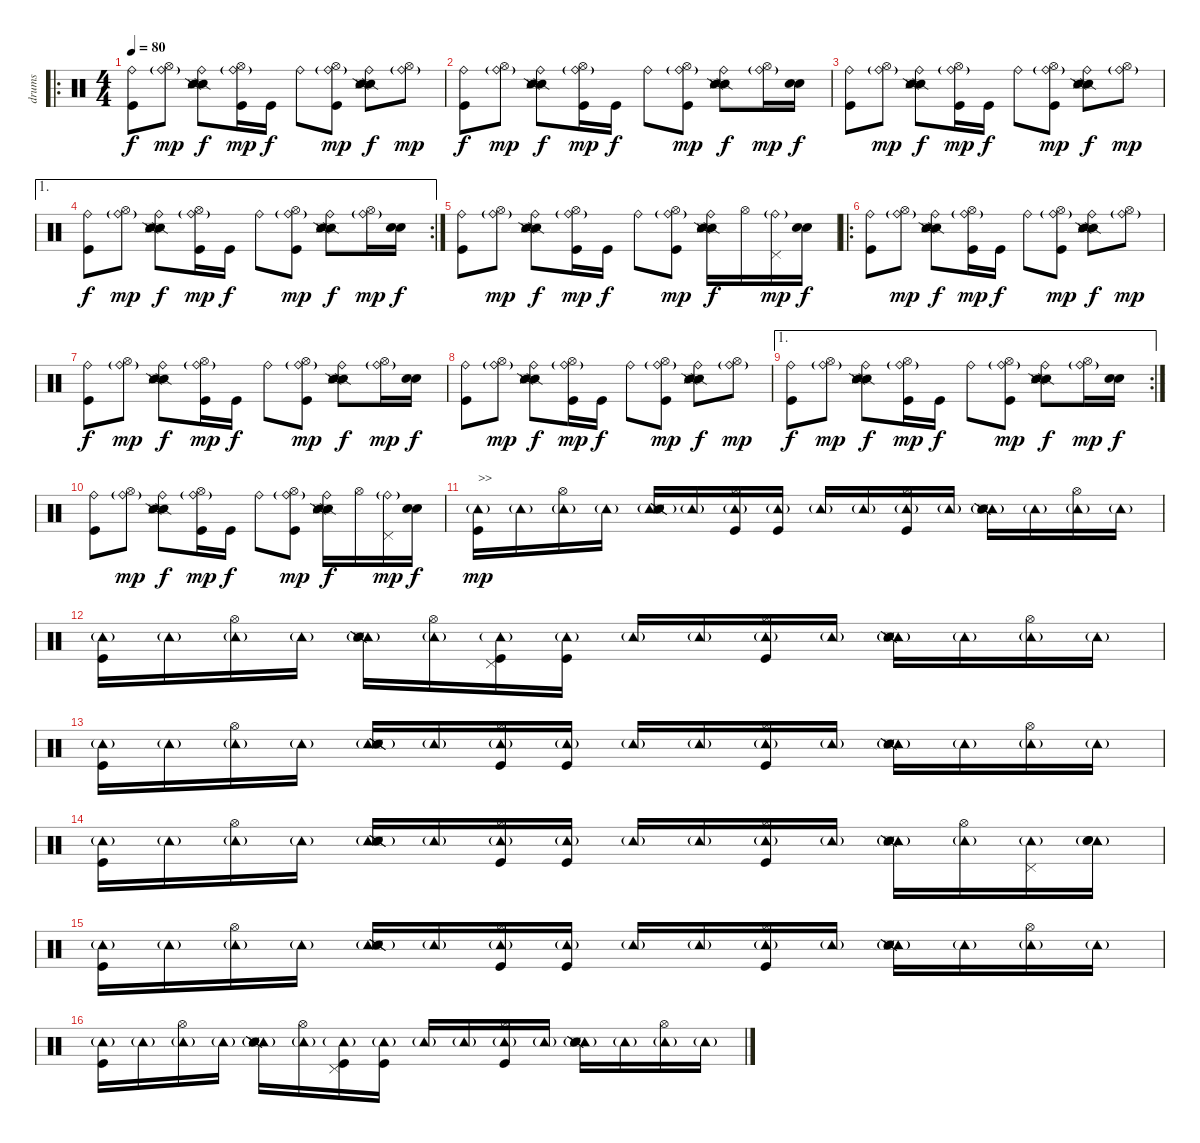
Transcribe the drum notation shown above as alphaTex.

\track ("drums" "drums") {instrument percussion}
\staff {score}
\articulation defaults
\ro
\ts (4 4)
\tempo 80
\clef neutral
\ks c
("Ride (bell)" "Kick (hit)").8{dy f} ("Ride (bell)"{g} "Hi-Hat (open)").8{dy mp} ("Ride (bell)" "Snare (side stick) 2" "Snare (side stick) 2" "Metronome (hit)" "Metronome (hit)").8{dy f} ("Ride (bell)"{g} "Hi-Hat (open)" "Kick (hit)").16{dy mp} "Kick (hit)".16{dy f} "Ride (bell)".8 ("Ride (bell)"{g} "Hi-Hat (open)" "Kick (hit)").8{dy mp} ("Ride (bell)" "Snare (side stick) 2" "Snare (side stick) 2" "Metronome (hit)" "Metronome (hit)").8{dy f} ("Ride (bell)"{g} "Hi-Hat (open)").8{dy mp} |
("Ride (bell)" "Kick (hit)").8{dy f} ("Ride (bell)"{g} "Hi-Hat (open)").8{dy mp} ("Ride (bell)" "Snare (side stick) 2" "Snare (side stick) 2" "Metronome (hit)" "Metronome (hit)").8{dy f} ("Ride (bell)"{g} "Hi-Hat (open)" "Kick (hit)").16{dy mp} "Kick (hit)".16{dy f} "Ride (bell)".8 ("Ride (bell)"{g} "Hi-Hat (open)" "Kick (hit)").8{dy mp} ("Ride (bell)" "Snare (side stick) 2" "Snare (side stick) 2" "Metronome (hit)" "Metronome (hit)").8{dy f} ("Ride (bell)"{g} "Hi-Hat (open)").16{dy mp} ("Snare (hit) 2" "Snare (hit) 2").16{dy f} |
("Ride (bell)" "Kick (hit)").8 ("Ride (bell)"{g} "Hi-Hat (open)").8{dy mp} ("Ride (bell)" "Snare (side stick) 2" "Snare (side stick) 2" "Metronome (hit)" "Metronome (hit)").8{dy f} ("Ride (bell)"{g} "Hi-Hat (open)" "Kick (hit)").16{dy mp} "Kick (hit)".16{dy f} "Ride (bell)".8 ("Ride (bell)"{g} "Hi-Hat (open)" "Kick (hit)").8{dy mp} ("Ride (bell)" "Snare (side stick) 2" "Snare (side stick) 2" "Metronome (hit)" "Metronome (hit)").8{dy f} ("Ride (bell)"{g} "Hi-Hat (open)").8{dy mp} |
\ae 1
\rc 2
("Ride (bell)" "Kick (hit)").8{dy f} ("Ride (bell)"{g} "Hi-Hat (open)").8{dy mp} ("Ride (bell)" "Snare (side stick) 2" "Snare (side stick) 2" "Metronome (hit)" "Metronome (hit)").8{dy f} ("Ride (bell)"{g} "Hi-Hat (open)" "Kick (hit)").16{dy mp} "Kick (hit)".16{dy f} "Ride (bell)".8 ("Ride (bell)"{g} "Hi-Hat (open)" "Kick (hit)").8{dy mp} ("Ride (bell)" "Snare (side stick) 2" "Snare (side stick) 2" "Metronome (hit)" "Metronome (hit)").8{dy f} ("Ride (bell)"{g} "Hi-Hat (open)").16{dy mp} ("Snare (hit) 2" "Snare (hit) 2").16{dy f} |
("Ride (bell)" "Kick (hit)").8 ("Ride (bell)"{g} "Hi-Hat (open)").8{dy mp} ("Ride (bell)" "Snare (side stick) 2" "Snare (side stick) 2" "Metronome (hit)" "Metronome (hit)").8{dy f} ("Ride (bell)"{g} "Hi-Hat (open)" "Kick (hit)").16{dy mp} "Kick (hit)".16{dy f} "Ride (bell)".8 ("Ride (bell)"{g} "Hi-Hat (open)" "Kick (hit)").8{dy mp} ("Ride (bell)" "Snare (side stick) 2" "Snare (side stick) 2" "Metronome (hit)" "Metronome (hit)").16{dy f} "Hi-Hat (open)".16 ("Ride (bell)"{g} "Pedal Hi-Hat (hit)").16{dy mp} ("Snare (hit) 2" "Snare (hit) 2").16{dy f} |
\ro
("Ride (bell)" "Kick (hit)").8 ("Ride (bell)"{g} "Hi-Hat (open)").8{dy mp} ("Ride (bell)" "Snare (side stick) 2" "Snare (side stick) 2" "Metronome (hit)" "Metronome (hit)").8{dy f} ("Ride (bell)"{g} "Hi-Hat (open)" "Kick (hit)").16{dy mp} "Kick (hit)".16{dy f} "Ride (bell)".8 ("Ride (bell)"{g} "Hi-Hat (open)" "Kick (hit)").8{dy mp} ("Ride (bell)" "Snare (side stick) 2" "Snare (side stick) 2" "Metronome (hit)" "Metronome (hit)").8{dy f} ("Ride (bell)"{g} "Hi-Hat (open)").8{dy mp} |
("Ride (bell)" "Kick (hit)").8{dy f} ("Ride (bell)"{g} "Hi-Hat (open)").8{dy mp} ("Ride (bell)" "Snare (side stick) 2" "Snare (side stick) 2" "Metronome (hit)" "Metronome (hit)").8{dy f} ("Ride (bell)"{g} "Hi-Hat (open)" "Kick (hit)").16{dy mp} "Kick (hit)".16{dy f} "Ride (bell)".8 ("Ride (bell)"{g} "Hi-Hat (open)" "Kick (hit)").8{dy mp} ("Ride (bell)" "Snare (side stick) 2" "Snare (side stick) 2" "Metronome (hit)" "Metronome (hit)").8{dy f} ("Ride (bell)"{g} "Hi-Hat (open)").16{dy mp} ("Snare (hit) 2" "Snare (hit) 2").16{dy f} |
("Ride (bell)" "Kick (hit)").8 ("Ride (bell)"{g} "Hi-Hat (open)").8{dy mp} ("Ride (bell)" "Snare (side stick) 2" "Snare (side stick) 2" "Metronome (hit)" "Metronome (hit)").8{dy f} ("Ride (bell)"{g} "Hi-Hat (open)" "Kick (hit)").16{dy mp} "Kick (hit)".16{dy f} "Ride (bell)".8 ("Ride (bell)"{g} "Hi-Hat (open)" "Kick (hit)").8{dy mp} ("Ride (bell)" "Snare (side stick) 2" "Snare (side stick) 2" "Metronome (hit)" "Metronome (hit)").8{dy f} ("Ride (bell)"{g} "Hi-Hat (open)").8{dy mp} |
\ae 1
\rc 2
("Ride (bell)" "Kick (hit)").8{dy f} ("Ride (bell)"{g} "Hi-Hat (open)").8{dy mp} ("Ride (bell)" "Snare (side stick) 2" "Snare (side stick) 2" "Metronome (hit)" "Metronome (hit)").8{dy f} ("Ride (bell)"{g} "Hi-Hat (open)" "Kick (hit)").16{dy mp} "Kick (hit)".16{dy f} "Ride (bell)".8 ("Ride (bell)"{g} "Hi-Hat (open)" "Kick (hit)").8{dy mp} ("Ride (bell)" "Snare (side stick) 2" "Snare (side stick) 2" "Metronome (hit)" "Metronome (hit)").8{dy f} ("Ride (bell)"{g} "Hi-Hat (open)").16{dy mp} ("Snare (hit) 2" "Snare (hit) 2").16{dy f} |
("Ride (bell)" "Kick (hit)").8 ("Ride (bell)"{g} "Hi-Hat (open)").8{dy mp} ("Ride (bell)" "Snare (side stick) 2" "Snare (side stick) 2" "Metronome (hit)" "Metronome (hit)").8{dy f} ("Ride (bell)"{g} "Hi-Hat (open)" "Kick (hit)").16{dy mp} "Kick (hit)".16{dy f} "Ride (bell)".8 ("Ride (bell)"{g} "Hi-Hat (open)" "Kick (hit)").8{dy mp} ("Ride (bell)" "Snare (side stick) 2" "Snare (side stick) 2" "Metronome (hit)" "Metronome (hit)").16{dy f} "Hi-Hat (open)".16 ("Ride (bell)"{g} "Pedal Hi-Hat (hit)").16{dy mp} ("Snare (hit) 2" "Snare (hit) 2").16{dy f} |
("Tambourine (hit)"{g} "Kick (hit)").16{txt ">>" dy mp} "Tambourine (hit)"{g}.16 ("Tambourine (hit)"{g} "Hi-Hat (open)").16 "Tambourine (hit)"{g}.16 ("Tambourine (hit)"{g} "Snare (side stick) 2" "Snare (side stick) 2" "Metronome (hit)" "Metronome (hit)").16 "Tambourine (hit)"{g}.16 ("Tambourine (hit)"{g} "Hi-Hat (open)" "Kick (hit)").16 ("Tambourine (hit)"{g} "Kick (hit)").16 "Tambourine (hit)"{g}.16 "Tambourine (hit)"{g}.16 ("Tambourine (hit)"{g} "Hi-Hat (open)" "Kick (hit)").16 "Tambourine (hit)"{g}.16 ("Tambourine (hit)"{g} "Snare (side stick) 2" "Snare (side stick) 2" "Metronome (hit)" "Metronome (hit)").16 "Tambourine (hit)"{g}.16 ("Tambourine (hit)"{g} "Hi-Hat (open)").16 "Tambourine (hit)"{g}.16 |
("Tambourine (hit)"{g} "Kick (hit)").16 "Tambourine (hit)"{g}.16 ("Tambourine (hit)"{g} "Hi-Hat (open)").16 "Tambourine (hit)"{g}.16 ("Tambourine (hit)"{g} "Snare (side stick) 2" "Snare (side stick) 2" "Metronome (hit)" "Metronome (hit)").16 ("Tambourine (hit)"{g} "Hi-Hat (open)").16 ("Tambourine (hit)"{g} "Pedal Hi-Hat (hit)" "Kick (hit)").16 ("Tambourine (hit)"{g} "Kick (hit)").16 "Tambourine (hit)"{g}.16 "Tambourine (hit)"{g}.16 ("Tambourine (hit)"{g} "Hi-Hat (open)" "Kick (hit)").16 "Tambourine (hit)"{g}.16 ("Tambourine (hit)"{g} "Snare (side stick) 2" "Snare (side stick) 2" "Metronome (hit)" "Metronome (hit)").16 "Tambourine (hit)"{g}.16 ("Tambourine (hit)"{g} "Hi-Hat (open)").16 "Tambourine (hit)"{g}.16 |
("Tambourine (hit)"{g} "Kick (hit)").16 "Tambourine (hit)"{g}.16 ("Tambourine (hit)"{g} "Hi-Hat (open)").16 "Tambourine (hit)"{g}.16 ("Tambourine (hit)"{g} "Snare (side stick) 2" "Snare (side stick) 2" "Metronome (hit)" "Metronome (hit)").16 "Tambourine (hit)"{g}.16 ("Tambourine (hit)"{g} "Hi-Hat (open)" "Kick (hit)").16 ("Tambourine (hit)"{g} "Kick (hit)").16 "Tambourine (hit)"{g}.16 "Tambourine (hit)"{g}.16 ("Tambourine (hit)"{g} "Hi-Hat (open)" "Kick (hit)").16 "Tambourine (hit)"{g}.16 ("Tambourine (hit)"{g} "Snare (side stick) 2" "Snare (side stick) 2" "Metronome (hit)" "Metronome (hit)").16 "Tambourine (hit)"{g}.16 ("Tambourine (hit)"{g} "Hi-Hat (open)").16 "Tambourine (hit)"{g}.16 |
("Tambourine (hit)"{g} "Kick (hit)").16 "Tambourine (hit)"{g}.16 ("Tambourine (hit)"{g} "Hi-Hat (open)").16 "Tambourine (hit)"{g}.16 ("Tambourine (hit)"{g} "Snare (side stick) 2" "Snare (side stick) 2" "Metronome (hit)" "Metronome (hit)").16 "Tambourine (hit)"{g}.16 ("Tambourine (hit)"{g} "Hi-Hat (open)" "Kick (hit)").16 ("Tambourine (hit)"{g} "Kick (hit)").16 "Tambourine (hit)"{g}.16 "Tambourine (hit)"{g}.16 ("Tambourine (hit)"{g} "Hi-Hat (open)" "Kick (hit)").16 "Tambourine (hit)"{g}.16 ("Tambourine (hit)"{g} "Snare (side stick) 2" "Snare (side stick) 2" "Metronome (hit)" "Metronome (hit)").16 ("Tambourine (hit)"{g} "Hi-Hat (open)").16 ("Tambourine (hit)"{g} "Pedal Hi-Hat (hit)").16 ("Tambourine (hit)"{g} "Snare (hit) 2" "Snare (hit) 2").16 |
("Tambourine (hit)"{g} "Kick (hit)").16 "Tambourine (hit)"{g}.16 ("Tambourine (hit)"{g} "Hi-Hat (open)").16 "Tambourine (hit)"{g}.16 ("Tambourine (hit)"{g} "Snare (side stick) 2" "Snare (side stick) 2" "Metronome (hit)" "Metronome (hit)").16 "Tambourine (hit)"{g}.16 ("Tambourine (hit)"{g} "Hi-Hat (open)" "Kick (hit)").16 ("Tambourine (hit)"{g} "Kick (hit)").16 "Tambourine (hit)"{g}.16 "Tambourine (hit)"{g}.16 ("Tambourine (hit)"{g} "Hi-Hat (open)" "Kick (hit)").16 "Tambourine (hit)"{g}.16 ("Tambourine (hit)"{g} "Snare (side stick) 2" "Snare (side stick) 2" "Metronome (hit)" "Metronome (hit)").16 "Tambourine (hit)"{g}.16 ("Tambourine (hit)"{g} "Hi-Hat (open)").16 "Tambourine (hit)"{g}.16 |
("Tambourine (hit)"{g} "Kick (hit)").16 "Tambourine (hit)"{g}.16 ("Tambourine (hit)"{g} "Hi-Hat (open)").16 "Tambourine (hit)"{g}.16 ("Tambourine (hit)"{g} "Snare (side stick) 2" "Snare (side stick) 2" "Metronome (hit)" "Metronome (hit)").16 ("Tambourine (hit)"{g} "Hi-Hat (open)").16 ("Tambourine (hit)"{g} "Pedal Hi-Hat (hit)" "Kick (hit)").16 ("Tambourine (hit)"{g} "Kick (hit)").16 "Tambourine (hit)"{g}.16 "Tambourine (hit)"{g}.16 ("Tambourine (hit)"{g} "Hi-Hat (open)" "Kick (hit)").16 "Tambourine (hit)"{g}.16 ("Tambourine (hit)"{g} "Snare (side stick) 2" "Snare (side stick) 2" "Metronome (hit)" "Metronome (hit)").16 "Tambourine (hit)"{g}.16 ("Tambourine (hit)"{g} "Hi-Hat (open)").16 "Tambourine (hit)"{g}.16
